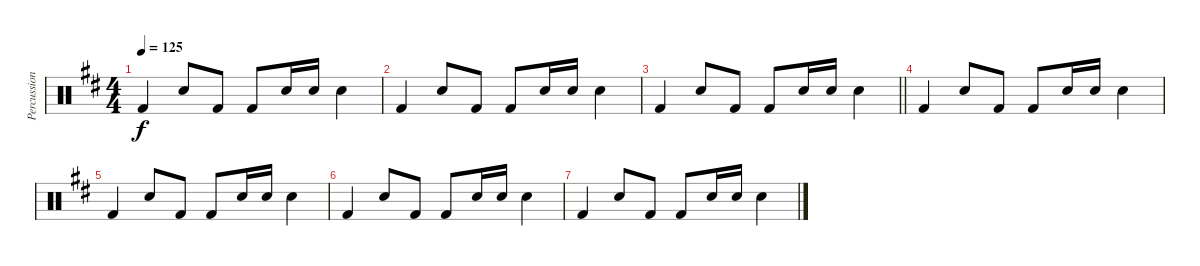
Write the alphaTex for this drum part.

\track ("Percussion" "Percussion") {instrument percussion}
\staff {score}
\articulation defaults
\ts (4 4)
\tempo 125
\clef neutral
\ks d "Kick (hit) 2".4{dy f} "Snare (hit) 2".8 "Kick (hit) 2".8 "Kick (hit) 2".8 "Snare (hit) 2".16 "Snare (hit) 2".16 "Snare (hit) 2".4
|
"Kick (hit) 2".4 "Snare (hit) 2".8 "Kick (hit) 2".8 "Kick (hit) 2".8 "Snare (hit) 2".16 "Snare (hit) 2".16 "Snare (hit) 2".4 |
\barLineRight lightlight "Kick (hit) 2".4 "Snare (hit) 2".8 "Kick (hit) 2".8 "Kick (hit) 2".8 "Snare (hit) 2".16 "Snare (hit) 2".16 "Snare (hit) 2".4
|
"Kick (hit) 2".4 "Snare (hit) 2".8 "Kick (hit) 2".8 "Kick (hit) 2".8 "Snare (hit) 2".16 "Snare (hit) 2".16 "Snare (hit) 2".4 |
"Kick (hit) 2".4 "Snare (hit) 2".8 "Kick (hit) 2".8 "Kick (hit) 2".8 "Snare (hit) 2".16 "Snare (hit) 2".16 "Snare (hit) 2".4 |
"Kick (hit) 2".4 "Snare (hit) 2".8 "Kick (hit) 2".8 "Kick (hit) 2".8 "Snare (hit) 2".16 "Snare (hit) 2".16 "Snare (hit) 2".4 |
"Kick (hit) 2".4 "Snare (hit) 2".8 "Kick (hit) 2".8 "Kick (hit) 2".8 "Snare (hit) 2".16 "Snare (hit) 2".16 "Snare (hit) 2".4
